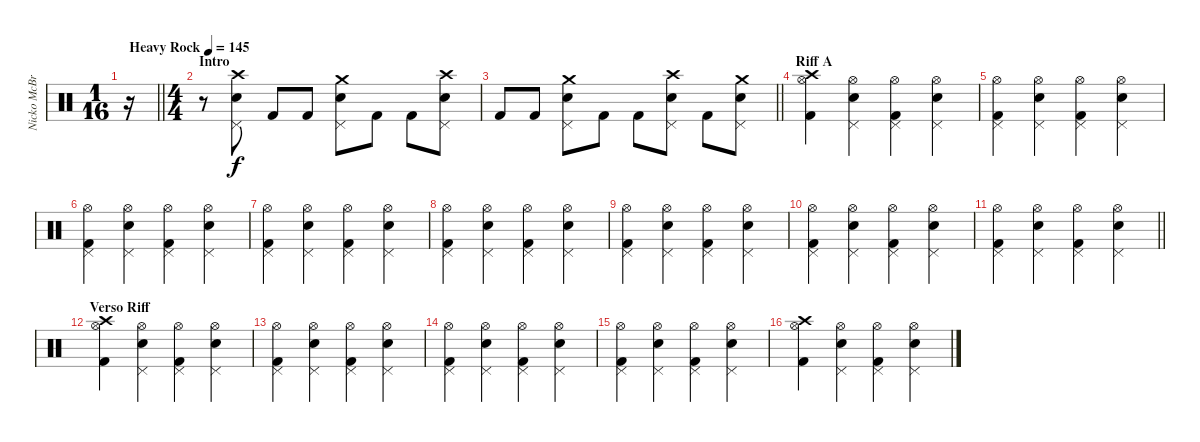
\track ("Nicko McBrain" "Nicko McBr") {instrument percussion}
\staff {score}
\articulation defaults
\ts (1 16)
\tempo (145 "Heavy Rock")
\clef neutral
\barLineRight lightlight
\ks c
r.16{dy f} |
\ts (4 4)
\section ("" "Intro")
r.8 ("Snare (hit) 2" "Pedal Hi-Hat (hit)" "Crash high (hit)").8 "Kick (hit) 2".8 "Kick (hit) 2".8 ("Snare (hit) 2" "Pedal Hi-Hat (hit)" "Crash medium (hit)").8 "Kick (hit) 2".8 "Kick (hit) 2".8 ("Snare (hit) 2" "Pedal Hi-Hat (hit)" "Crash high (hit)").8 |
\barLineRight lightlight "Kick (hit) 2".8 "Kick (hit) 2".8
("Snare (hit) 2" "Pedal Hi-Hat (hit)" "Crash medium (hit)").8 "Kick (hit) 2".8 "Kick (hit) 2".8 ("Snare (hit) 2" "Pedal Hi-Hat (hit)" "Crash high (hit)").8 "Kick (hit) 2".8 ("Snare (hit) 2" "Pedal Hi-Hat (hit)" "Crash medium (hit)").8 |
\section ("" "Riff A")
("Kick (hit) 2" "Hi-Hat (open)" "Crash high (hit)").4 ("Snare (hit) 2" "Pedal Hi-Hat (hit)" "Hi-Hat (open)").4 ("Kick (hit) 2" "Pedal Hi-Hat (hit)" "Hi-Hat (open)").4 ("Snare (hit) 2" "Pedal Hi-Hat (hit)" "Hi-Hat (open)").4 |
("Kick (hit) 2" "Pedal Hi-Hat (hit)" "Hi-Hat (open)").4 ("Snare (hit) 2" "Pedal Hi-Hat (hit)" "Hi-Hat (open)").4 ("Kick (hit) 2" "Pedal Hi-Hat (hit)" "Hi-Hat (open)").4 ("Snare (hit) 2" "Pedal Hi-Hat (hit)" "Hi-Hat (open)").4 |
("Kick (hit) 2" "Pedal Hi-Hat (hit)" "Hi-Hat (open)").4 ("Snare (hit) 2" "Pedal Hi-Hat (hit)" "Hi-Hat (open)").4 ("Kick (hit) 2" "Pedal Hi-Hat (hit)" "Hi-Hat (open)").4 ("Snare (hit) 2" "Pedal Hi-Hat (hit)" "Hi-Hat (open)").4 |
("Kick (hit) 2" "Pedal Hi-Hat (hit)" "Hi-Hat (open)").4 ("Snare (hit) 2" "Pedal Hi-Hat (hit)" "Hi-Hat (open)").4 ("Kick (hit) 2" "Pedal Hi-Hat (hit)" "Hi-Hat (open)").4 ("Snare (hit) 2" "Pedal Hi-Hat (hit)" "Hi-Hat (open)").4 |
("Kick (hit) 2" "Pedal Hi-Hat (hit)" "Hi-Hat (open)").4 ("Snare (hit) 2" "Pedal Hi-Hat (hit)" "Hi-Hat (open)").4 ("Kick (hit) 2" "Pedal Hi-Hat (hit)" "Hi-Hat (open)").4 ("Snare (hit) 2" "Pedal Hi-Hat (hit)" "Hi-Hat (open)").4 |
("Kick (hit) 2" "Pedal Hi-Hat (hit)" "Hi-Hat (open)").4 ("Snare (hit) 2" "Pedal Hi-Hat (hit)" "Hi-Hat (open)").4 ("Kick (hit) 2" "Pedal Hi-Hat (hit)" "Hi-Hat (open)").4 ("Snare (hit) 2" "Pedal Hi-Hat (hit)" "Hi-Hat (open)").4 |
("Kick (hit) 2" "Pedal Hi-Hat (hit)" "Hi-Hat (open)").4 ("Snare (hit) 2" "Pedal Hi-Hat (hit)" "Hi-Hat (open)").4 ("Kick (hit) 2" "Pedal Hi-Hat (hit)" "Hi-Hat (open)").4 ("Snare (hit) 2" "Pedal Hi-Hat (hit)" "Hi-Hat (open)").4 |
\barLineRight lightlight
("Kick (hit) 2" "Pedal Hi-Hat (hit)" "Hi-Hat (open)").4 ("Snare (hit) 2" "Pedal Hi-Hat (hit)" "Hi-Hat (open)").4 ("Kick (hit) 2" "Pedal Hi-Hat (hit)" "Hi-Hat (open)").4 ("Snare (hit) 2" "Pedal Hi-Hat (hit)" "Hi-Hat (open)").4 |
\section ("" "Verso Riff")
("Kick (hit) 2" "Hi-Hat (open)" "Crash high (hit)").4 ("Snare (hit) 2" "Pedal Hi-Hat (hit)" "Hi-Hat (open)").4 ("Kick (hit) 2" "Pedal Hi-Hat (hit)" "Hi-Hat (open)").4 ("Snare (hit) 2" "Pedal Hi-Hat (hit)" "Hi-Hat (open)").4 |
("Kick (hit) 2" "Pedal Hi-Hat (hit)" "Hi-Hat (open)").4 ("Snare (hit) 2" "Pedal Hi-Hat (hit)" "Hi-Hat (open)").4 ("Kick (hit) 2" "Pedal Hi-Hat (hit)" "Hi-Hat (open)").4 ("Snare (hit) 2" "Pedal Hi-Hat (hit)" "Hi-Hat (open)").4 |
("Kick (hit) 2" "Pedal Hi-Hat (hit)" "Hi-Hat (open)").4 ("Snare (hit) 2" "Pedal Hi-Hat (hit)" "Hi-Hat (open)").4 ("Kick (hit) 2" "Pedal Hi-Hat (hit)" "Hi-Hat (open)").4 ("Snare (hit) 2" "Pedal Hi-Hat (hit)" "Hi-Hat (open)").4 |
("Kick (hit) 2" "Pedal Hi-Hat (hit)" "Hi-Hat (open)").4 ("Snare (hit) 2" "Pedal Hi-Hat (hit)" "Hi-Hat (open)").4 ("Kick (hit) 2" "Pedal Hi-Hat (hit)" "Hi-Hat (open)").4 ("Snare (hit) 2" "Pedal Hi-Hat (hit)" "Hi-Hat (open)").4 |
("Kick (hit) 2" "Hi-Hat (open)" "Crash high (hit)").4 ("Snare (hit) 2" "Pedal Hi-Hat (hit)" "Hi-Hat (open)").4 ("Kick (hit) 2" "Pedal Hi-Hat (hit)" "Hi-Hat (open)").4 ("Snare (hit) 2" "Pedal Hi-Hat (hit)" "Hi-Hat (open)").4
